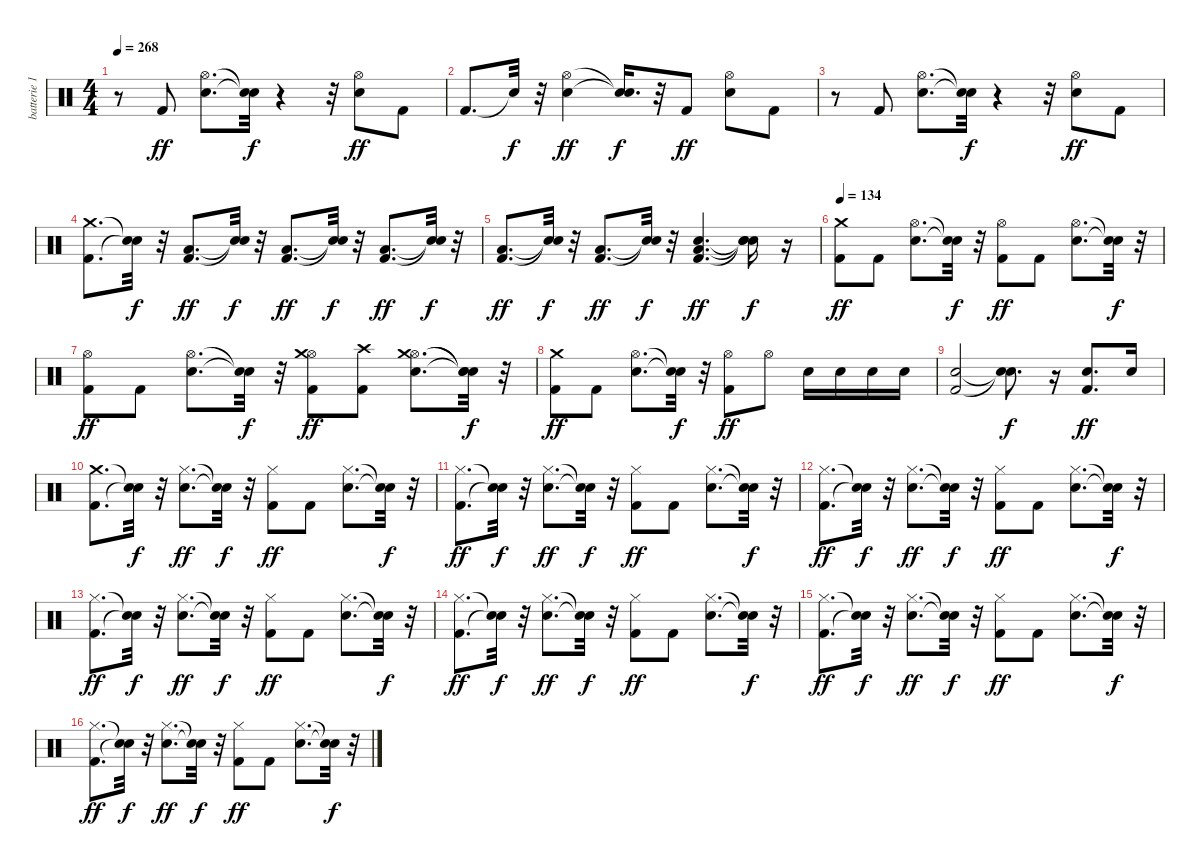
\track ("batterie 1" "batterie 1") {instrument percussion}
\staff {score}
\articulation defaults
\ts (4 4)
\tempo 268
\clef neutral
\ks c
r.8{dy f} "Kick (hit) 2".8{dy ff} ("Electric Snare (hit)" "Hi-Hat (open)").8{d} ("Snare (hit)"{t} "Snare (hit)"{t}).32{dy f} r.4 r.32 ("Electric Snare (hit)" "Hi-Hat (open)").8{dy ff} "Kick (hit) 2".8 |
"Kick (hit) 2".8{d} "Snare (hit)"{t}.32{dy f} r.32 ("Electric Snare (hit)" "Hi-Hat (open)").4{dy ff} ("Snare (hit)"{t} "Snare (hit)"{t}).16{d dy f} r.32 "Kick (hit) 2".8{dy ff} ("Electric Snare (hit)" "Hi-Hat (open)").8 "Kick (hit) 2".8 |
r.8 "Kick (hit) 2".8 ("Electric Snare (hit)" "Hi-Hat (open)").8{d} ("Snare (hit)"{t} "Snare (hit)"{t}).32{dy f} r.4 r.32 ("Electric Snare (hit)" "Hi-Hat (open)").8{dy ff} "Kick (hit) 2".8 |
("Kick (hit) 2" "Crash medium (hit)").8{d} ("Snare (hit)"{t} "Snare (hit)"{t}).32{dy f} r.32 ("Kick (hit) 2" "Low Floor Tom (hit)").8{d dy ff} ("Snare (hit)"{t} "Snare (hit)"{t}).32{dy f} r.32 ("Kick (hit) 2" "Low Floor Tom (hit)").8{d dy ff} ("Snare (hit)"{t} "Snare (hit)"{t}).32{dy f} r.32 ("Kick (hit) 2" "Low Floor Tom (hit)").8{d dy ff} ("Snare (hit)"{t} "Snare (hit)"{t}).32{dy f} r.32 |
("Kick (hit) 2" "Low Floor Tom (hit)").8{d dy ff} ("Snare (hit)"{t} "Snare (hit)"{t}).32{dy f} r.32 ("Kick (hit) 2" "Low Floor Tom (hit)").8{d dy ff} ("Snare (hit)"{t} "Snare (hit)"{t}).32{dy f} r.32 ("Kick (hit) 2" "Electric Snare (hit)" "Low Floor Tom (hit)").4{d dy ff} ("Snare (hit)"{t} "Snare (hit)"{t} "Snare (hit)"{t}).16{dy f} r.16 |
\tempo 134
("Kick (hit) 2" "Crash medium (hit)").8{dy ff} "Kick (hit) 2".8 ("Electric Snare (hit)" "Hi-Hat (open)").8{d} ("Snare (hit)"{t} "Snare (hit)"{t}).32{dy f} r.32 ("Kick (hit) 2" "Hi-Hat (open)").8{dy ff} "Kick (hit) 2".8 ("Electric Snare (hit)" "Hi-Hat (open)").8{d} ("Snare (hit)"{t} "Snare (hit)"{t}).32{dy f} r.32 |
("Kick (hit) 2" "Hi-Hat (open)").8{dy ff} "Kick (hit) 2".8 ("Electric Snare (hit)" "Hi-Hat (open)").8{d} ("Snare (hit)"{t} "Snare (hit)"{t}).32{dy f} r.32 ("Kick (hit) 2" "Hi-Hat (open)" "Crash medium (hit)").8{dy ff} ("Kick (hit) 2" "Crash high (hit)").8 ("Electric Snare (hit)" "Hi-Hat (open)" "Crash medium (hit)").8{d} ("Snare (hit)"{t} "Snare (hit)"{t} "Snare (hit)"{t}).32{dy f} r.32 |
("Kick (hit) 2" "Crash medium (hit)").8{dy ff} "Kick (hit) 2".8 ("Electric Snare (hit)" "Hi-Hat (open)").8{d} ("Snare (hit)"{t} "Snare (hit)"{t}).32{dy f} r.32 ("Kick (hit) 2" "Hi-Hat (open)").8{dy ff} "Hi-Hat (open)".8 "Electric Snare (hit)".16 "Electric Snare (hit)".16 "Electric Snare (hit)".16 "Electric Snare (hit)".16 |
("Kick (hit) 2" "Electric Snare (hit)").2 ("Snare (hit)"{t} "Snare (hit)"{t}).8{d dy f} r.16 ("Kick (hit) 2" "Electric Snare (hit)").8{d dy ff} "Electric Snare (hit)".16 |
("Kick (hit) 2" "Crash medium (hit)").8{d} ("Snare (hit)"{t} "Snare (hit)"{t}).32{dy f} r.32 ("Electric Snare (hit)" "Hi-Hat (closed)").8{d dy ff} ("Snare (hit)"{t} "Snare (hit)"{t}).32{dy f} r.32 ("Kick (hit) 2" "Hi-Hat (closed)").8{dy ff} "Kick (hit) 2".8 ("Electric Snare (hit)" "Hi-Hat (closed)").8{d} ("Snare (hit)"{t} "Snare (hit)"{t}).32{dy f} r.32 |
("Kick (hit) 2" "Hi-Hat (closed)").8{d dy ff} ("Snare (hit)"{t} "Snare (hit)"{t}).32{dy f} r.32 ("Electric Snare (hit)" "Hi-Hat (closed)").8{d dy ff} ("Snare (hit)"{t} "Snare (hit)"{t}).32{dy f} r.32 ("Kick (hit) 2" "Hi-Hat (closed)").8{dy ff} "Kick (hit) 2".8 ("Electric Snare (hit)" "Hi-Hat (closed)").8{d} ("Snare (hit)"{t} "Snare (hit)"{t}).32{dy f} r.32 |
("Kick (hit) 2" "Hi-Hat (closed)").8{d dy ff} ("Snare (hit)"{t} "Snare (hit)"{t}).32{dy f} r.32 ("Electric Snare (hit)" "Hi-Hat (closed)").8{d dy ff} ("Snare (hit)"{t} "Snare (hit)"{t}).32{dy f} r.32 ("Kick (hit) 2" "Hi-Hat (closed)").8{dy ff} "Kick (hit) 2".8 ("Electric Snare (hit)" "Hi-Hat (closed)").8{d} ("Snare (hit)"{t} "Snare (hit)"{t}).32{dy f} r.32 |
("Kick (hit) 2" "Hi-Hat (closed)").8{d dy ff} ("Snare (hit)"{t} "Snare (hit)"{t}).32{dy f} r.32 ("Electric Snare (hit)" "Hi-Hat (closed)").8{d dy ff} ("Snare (hit)"{t} "Snare (hit)"{t}).32{dy f} r.32 ("Kick (hit) 2" "Hi-Hat (closed)").8{dy ff} "Kick (hit) 2".8 ("Electric Snare (hit)" "Hi-Hat (closed)").8{d} ("Snare (hit)"{t} "Snare (hit)"{t}).32{dy f} r.32 |
("Kick (hit) 2" "Hi-Hat (closed)").8{d dy ff} ("Snare (hit)"{t} "Snare (hit)"{t}).32{dy f} r.32 ("Electric Snare (hit)" "Hi-Hat (closed)").8{d dy ff} ("Snare (hit)"{t} "Snare (hit)"{t}).32{dy f} r.32 ("Kick (hit) 2" "Hi-Hat (closed)").8{dy ff} "Kick (hit) 2".8 ("Electric Snare (hit)" "Hi-Hat (closed)").8{d} ("Snare (hit)"{t} "Snare (hit)"{t}).32{dy f} r.32 |
("Kick (hit) 2" "Hi-Hat (closed)").8{d dy ff} ("Snare (hit)"{t} "Snare (hit)"{t}).32{dy f} r.32 ("Electric Snare (hit)" "Hi-Hat (closed)").8{d dy ff} ("Snare (hit)"{t} "Snare (hit)"{t}).32{dy f} r.32 ("Kick (hit) 2" "Hi-Hat (closed)").8{dy ff} "Kick (hit) 2".8 ("Electric Snare (hit)" "Hi-Hat (closed)").8{d} ("Snare (hit)"{t} "Snare (hit)"{t}).32{dy f} r.32 |
("Kick (hit) 2" "Hi-Hat (closed)").8{d dy ff} ("Snare (hit)"{t} "Snare (hit)"{t}).32{dy f} r.32 ("Electric Snare (hit)" "Hi-Hat (closed)").8{d dy ff} ("Snare (hit)"{t} "Snare (hit)"{t}).32{dy f} r.32 ("Kick (hit) 2" "Hi-Hat (closed)").8{dy ff} "Kick (hit) 2".8 ("Electric Snare (hit)" "Hi-Hat (closed)").8{d} ("Snare (hit)"{t} "Snare (hit)"{t}).32{dy f} r.32
